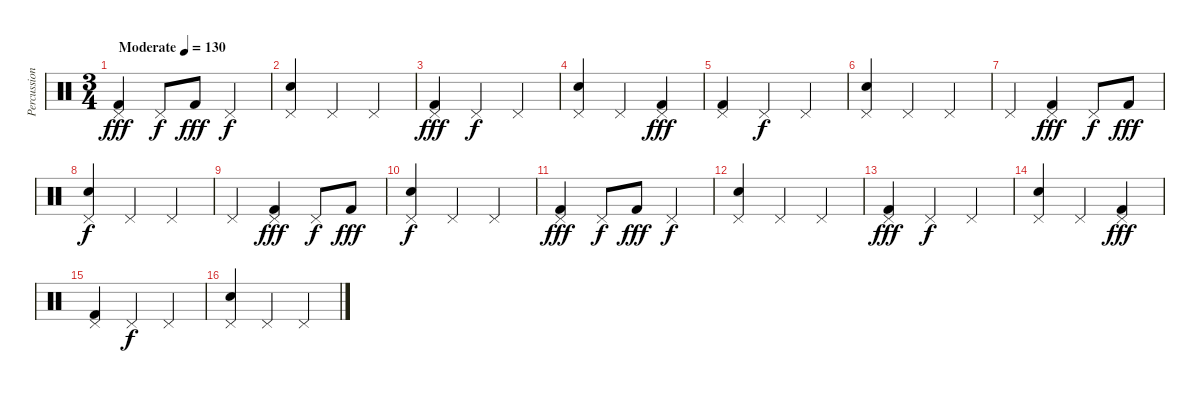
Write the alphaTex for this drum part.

\track ("Percussion" "Percussion") {instrument percussion}
\staff {score}
\articulation defaults
\ts (3 4)
\tempo (130 "Moderate")
\clef neutral
\ks c
("Pedal Hi-Hat (hit)" "Kick (hit) 2").4{dy fff} "Pedal Hi-Hat (hit)".8{dy f} "Kick (hit) 2".8{dy fff} "Pedal Hi-Hat (hit)".4{dy f} |
("Pedal Hi-Hat (hit)" "Electric Snare (hit)").4 "Pedal Hi-Hat (hit)".4 "Pedal Hi-Hat (hit)".4 |
("Pedal Hi-Hat (hit)" "Kick (hit) 2").4{dy fff} "Pedal Hi-Hat (hit)".4{dy f} "Pedal Hi-Hat (hit)".4 |
("Pedal Hi-Hat (hit)" "Electric Snare (hit)").4 "Pedal Hi-Hat (hit)".4 ("Pedal Hi-Hat (hit)" "Kick (hit) 2").4{dy fff} |
("Pedal Hi-Hat (hit)" "Kick (hit) 2").4 "Pedal Hi-Hat (hit)".4{dy f} "Pedal Hi-Hat (hit)".4 |
("Pedal Hi-Hat (hit)" "Electric Snare (hit)").4 "Pedal Hi-Hat (hit)".4 "Pedal Hi-Hat (hit)".4 |
"Pedal Hi-Hat (hit)".4 ("Pedal Hi-Hat (hit)" "Kick (hit) 2").4{dy fff} "Pedal Hi-Hat (hit)".8{dy f} "Kick (hit) 2".8{dy fff} |
("Pedal Hi-Hat (hit)" "Electric Snare (hit)").4{dy f} "Pedal Hi-Hat (hit)".4 "Pedal Hi-Hat (hit)".4 |
"Pedal Hi-Hat (hit)".4 ("Pedal Hi-Hat (hit)" "Kick (hit) 2").4{dy fff} "Pedal Hi-Hat (hit)".8{dy f} "Kick (hit) 2".8{dy fff} |
("Pedal Hi-Hat (hit)" "Electric Snare (hit)").4{dy f} "Pedal Hi-Hat (hit)".4 "Pedal Hi-Hat (hit)".4 |
("Pedal Hi-Hat (hit)" "Kick (hit) 2").4{dy fff} "Pedal Hi-Hat (hit)".8{dy f} "Kick (hit) 2".8{dy fff} "Pedal Hi-Hat (hit)".4{dy f} |
("Pedal Hi-Hat (hit)" "Electric Snare (hit)").4 "Pedal Hi-Hat (hit)".4 "Pedal Hi-Hat (hit)".4 |
("Pedal Hi-Hat (hit)" "Kick (hit) 2").4{dy fff} "Pedal Hi-Hat (hit)".4{dy f} "Pedal Hi-Hat (hit)".4 |
("Pedal Hi-Hat (hit)" "Electric Snare (hit)").4 "Pedal Hi-Hat (hit)".4 ("Pedal Hi-Hat (hit)" "Kick (hit) 2").4{dy fff} |
("Pedal Hi-Hat (hit)" "Kick (hit) 2").4 "Pedal Hi-Hat (hit)".4{dy f} "Pedal Hi-Hat (hit)".4 |
("Pedal Hi-Hat (hit)" "Electric Snare (hit)").4 "Pedal Hi-Hat (hit)".4 "Pedal Hi-Hat (hit)".4
